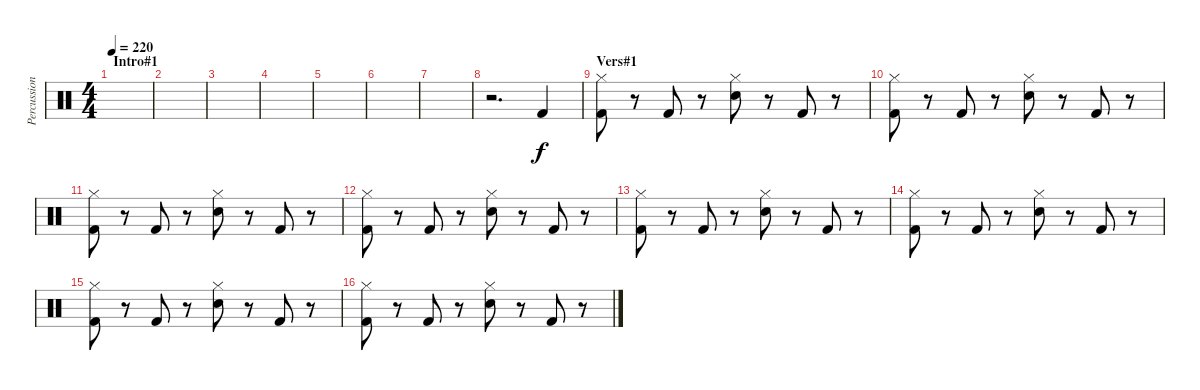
\track ("Percussion" "Percussion") {instrument percussion}
\staff {score}
\articulation defaults
\ts (4 4)
\section ("" "Intro#1")
\tempo 220
\clef neutral
\ks c
|
|
|
|
|
|
|
r.2{d} "Kick (hit) 2".4 |
\section ("" "Vers#1")
("Kick (hit) 2" "Hi-Hat (closed)").8{dy f} r.8 "Kick (hit) 2".8 r.8 ("Snare (hit) 2" "Hi-Hat (closed)").8 r.8 "Kick (hit) 2".8 r.8 |
("Kick (hit) 2" "Hi-Hat (closed)").8 r.8 "Kick (hit) 2".8 r.8 ("Snare (hit) 2" "Hi-Hat (closed)").8 r.8 "Kick (hit) 2".8 r.8 |
("Kick (hit) 2" "Hi-Hat (closed)").8 r.8 "Kick (hit) 2".8 r.8 ("Snare (hit) 2" "Hi-Hat (closed)").8 r.8 "Kick (hit) 2".8 r.8 |
("Kick (hit) 2" "Hi-Hat (closed)").8 r.8 "Kick (hit) 2".8 r.8 ("Snare (hit) 2" "Hi-Hat (closed)").8 r.8 "Kick (hit) 2".8 r.8 |
("Kick (hit) 2" "Hi-Hat (closed)").8 r.8 "Kick (hit) 2".8 r.8 ("Snare (hit) 2" "Hi-Hat (closed)").8 r.8 "Kick (hit) 2".8 r.8 |
("Kick (hit) 2" "Hi-Hat (closed)").8 r.8 "Kick (hit) 2".8 r.8 ("Snare (hit) 2" "Hi-Hat (closed)").8 r.8 "Kick (hit) 2".8 r.8 |
("Kick (hit) 2" "Hi-Hat (closed)").8 r.8 "Kick (hit) 2".8 r.8 ("Snare (hit) 2" "Hi-Hat (closed)").8 r.8 "Kick (hit) 2".8 r.8 |
("Kick (hit) 2" "Hi-Hat (closed)").8 r.8 "Kick (hit) 2".8 r.8 ("Snare (hit) 2" "Hi-Hat (closed)").8 r.8 "Kick (hit) 2".8 r.8
